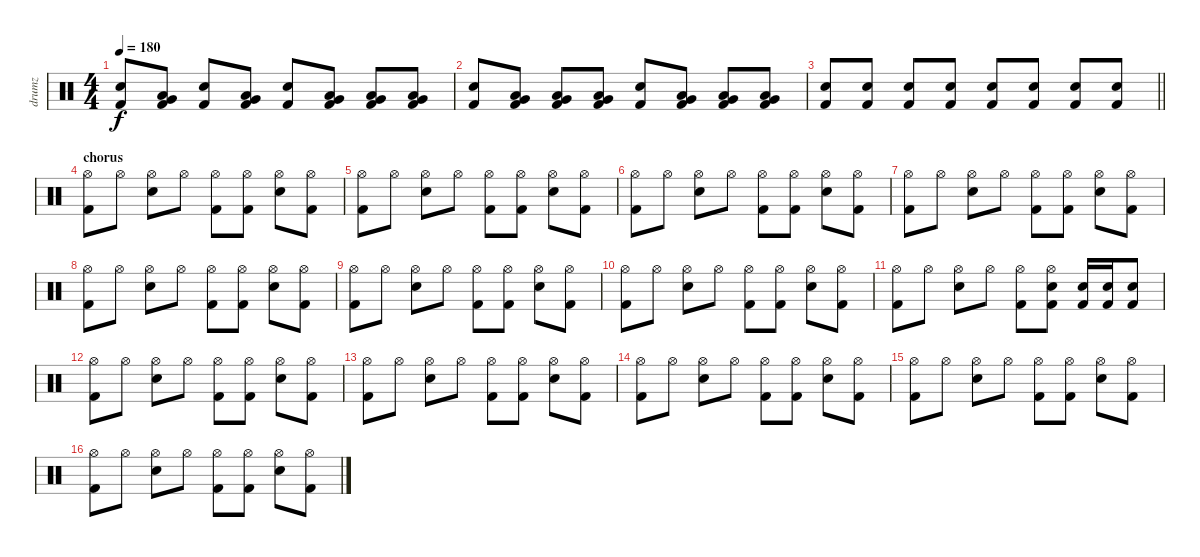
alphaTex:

\track ("drumz" "drumz") {instrument percussion}
\staff {score}
\articulation defaults
\ts (4 4)
\tempo 180
\clef neutral
\ks c
("Electric Snare (hit)" "Kick (hit) 2").8{dy f} ("Very Low Tom (hit)" "Low Floor Tom (hit)" "Kick (hit) 2").8 ("Electric Snare (hit)" "Kick (hit) 2").8 ("Very Low Tom (hit)" "Low Floor Tom (hit)" "Kick (hit) 2").8 ("Electric Snare (hit)" "Kick (hit) 2").8 ("Very Low Tom (hit)" "Low Floor Tom (hit)" "Kick (hit) 2").8 ("Very Low Tom (hit)" "Low Floor Tom (hit)" "Kick (hit) 2").8 ("Very Low Tom (hit)" "Low Floor Tom (hit)" "Kick (hit) 2").8 |
("Electric Snare (hit)" "Kick (hit) 2").8 ("Very Low Tom (hit)" "Low Floor Tom (hit)" "Kick (hit) 2").8 ("Very Low Tom (hit)" "Low Floor Tom (hit)" "Kick (hit) 2").8 ("Very Low Tom (hit)" "Low Floor Tom (hit)" "Kick (hit) 2").8 ("Electric Snare (hit)" "Kick (hit) 2").8 ("Very Low Tom (hit)" "Low Floor Tom (hit)" "Kick (hit) 2").8 ("Very Low Tom (hit)" "Low Floor Tom (hit)" "Kick (hit) 2").8 ("Very Low Tom (hit)" "Low Floor Tom (hit)" "Kick (hit) 2").8 |
\barLineRight lightlight
("Electric Snare (hit)" "Kick (hit) 2").8 ("Electric Snare (hit)" "Kick (hit) 2").8 ("Electric Snare (hit)" "Kick (hit) 2").8 ("Electric Snare (hit)" "Kick (hit) 2").8 ("Electric Snare (hit)" "Kick (hit) 2").8 ("Electric Snare (hit)" "Kick (hit) 2").8 ("Electric Snare (hit)" "Kick (hit) 2").8 ("Electric Snare (hit)" "Kick (hit) 2").8 |
\section ("" "chorus")
("Hi-Hat (open)" "Kick (hit) 2").8 "Hi-Hat (open)".8 ("Hi-Hat (open)" "Electric Snare (hit)").8 "Hi-Hat (open)".8 ("Hi-Hat (open)" "Kick (hit) 2").8 ("Hi-Hat (open)" "Kick (hit) 2").8 ("Hi-Hat (open)" "Electric Snare (hit)").8 ("Hi-Hat (open)" "Kick (hit) 2").8 |
("Hi-Hat (open)" "Kick (hit) 2").8 "Hi-Hat (open)".8 ("Hi-Hat (open)" "Electric Snare (hit)").8 "Hi-Hat (open)".8 ("Hi-Hat (open)" "Kick (hit) 2").8 ("Hi-Hat (open)" "Kick (hit) 2").8 ("Hi-Hat (open)" "Electric Snare (hit)").8 ("Hi-Hat (open)" "Kick (hit) 2").8 |
("Hi-Hat (open)" "Kick (hit) 2").8 "Hi-Hat (open)".8 ("Hi-Hat (open)" "Electric Snare (hit)").8 "Hi-Hat (open)".8 ("Hi-Hat (open)" "Kick (hit) 2").8 ("Hi-Hat (open)" "Kick (hit) 2").8 ("Hi-Hat (open)" "Electric Snare (hit)").8 ("Hi-Hat (open)" "Kick (hit) 2").8 |
("Hi-Hat (open)" "Kick (hit) 2").8 "Hi-Hat (open)".8 ("Hi-Hat (open)" "Electric Snare (hit)").8 "Hi-Hat (open)".8 ("Hi-Hat (open)" "Kick (hit) 2").8 ("Hi-Hat (open)" "Kick (hit) 2").8 ("Hi-Hat (open)" "Electric Snare (hit)").8 ("Hi-Hat (open)" "Kick (hit) 2").8 |
("Hi-Hat (open)" "Kick (hit) 2").8 "Hi-Hat (open)".8 ("Hi-Hat (open)" "Electric Snare (hit)").8 "Hi-Hat (open)".8 ("Hi-Hat (open)" "Kick (hit) 2").8 ("Hi-Hat (open)" "Kick (hit) 2").8 ("Hi-Hat (open)" "Electric Snare (hit)").8 ("Hi-Hat (open)" "Kick (hit) 2").8 |
("Hi-Hat (open)" "Kick (hit) 2").8 "Hi-Hat (open)".8 ("Hi-Hat (open)" "Electric Snare (hit)").8 "Hi-Hat (open)".8 ("Hi-Hat (open)" "Kick (hit) 2").8 ("Hi-Hat (open)" "Kick (hit) 2").8 ("Hi-Hat (open)" "Electric Snare (hit)").8 ("Hi-Hat (open)" "Kick (hit) 2").8 |
("Hi-Hat (open)" "Kick (hit) 2").8 "Hi-Hat (open)".8 ("Hi-Hat (open)" "Electric Snare (hit)").8 "Hi-Hat (open)".8 ("Hi-Hat (open)" "Kick (hit) 2").8 ("Hi-Hat (open)" "Kick (hit) 2").8 ("Hi-Hat (open)" "Electric Snare (hit)").8 ("Hi-Hat (open)" "Kick (hit) 2").8 |
("Hi-Hat (open)" "Kick (hit) 2").8 "Hi-Hat (open)".8 ("Hi-Hat (open)" "Electric Snare (hit)").8 "Hi-Hat (open)".8 ("Hi-Hat (open)" "Kick (hit) 2").8 ("Hi-Hat (open)" "Electric Snare (hit)" "Kick (hit) 2").8 ("Electric Snare (hit)" "Kick (hit) 2").16 ("Electric Snare (hit)" "Kick (hit) 2").16 ("Electric Snare (hit)" "Kick (hit) 2").8 |
("Hi-Hat (open)" "Kick (hit) 2").8 "Hi-Hat (open)".8 ("Hi-Hat (open)" "Electric Snare (hit)").8 "Hi-Hat (open)".8 ("Hi-Hat (open)" "Kick (hit) 2").8 ("Hi-Hat (open)" "Kick (hit) 2").8 ("Hi-Hat (open)" "Electric Snare (hit)").8 ("Hi-Hat (open)" "Kick (hit) 2").8 |
("Hi-Hat (open)" "Kick (hit) 2").8 "Hi-Hat (open)".8 ("Hi-Hat (open)" "Electric Snare (hit)").8 "Hi-Hat (open)".8 ("Hi-Hat (open)" "Kick (hit) 2").8 ("Hi-Hat (open)" "Kick (hit) 2").8 ("Hi-Hat (open)" "Electric Snare (hit)").8 ("Hi-Hat (open)" "Kick (hit) 2").8 |
("Hi-Hat (open)" "Kick (hit) 2").8 "Hi-Hat (open)".8 ("Hi-Hat (open)" "Electric Snare (hit)").8 "Hi-Hat (open)".8 ("Hi-Hat (open)" "Kick (hit) 2").8 ("Hi-Hat (open)" "Kick (hit) 2").8 ("Hi-Hat (open)" "Electric Snare (hit)").8 ("Hi-Hat (open)" "Kick (hit) 2").8 |
("Hi-Hat (open)" "Kick (hit) 2").8 "Hi-Hat (open)".8 ("Hi-Hat (open)" "Electric Snare (hit)").8 "Hi-Hat (open)".8 ("Hi-Hat (open)" "Kick (hit) 2").8 ("Hi-Hat (open)" "Kick (hit) 2").8 ("Hi-Hat (open)" "Electric Snare (hit)").8 ("Hi-Hat (open)" "Kick (hit) 2").8 |
("Hi-Hat (open)" "Kick (hit) 2").8 "Hi-Hat (open)".8 ("Hi-Hat (open)" "Electric Snare (hit)").8 "Hi-Hat (open)".8 ("Hi-Hat (open)" "Kick (hit) 2").8 ("Hi-Hat (open)" "Kick (hit) 2").8 ("Hi-Hat (open)" "Electric Snare (hit)").8 ("Hi-Hat (open)" "Kick (hit) 2").8
